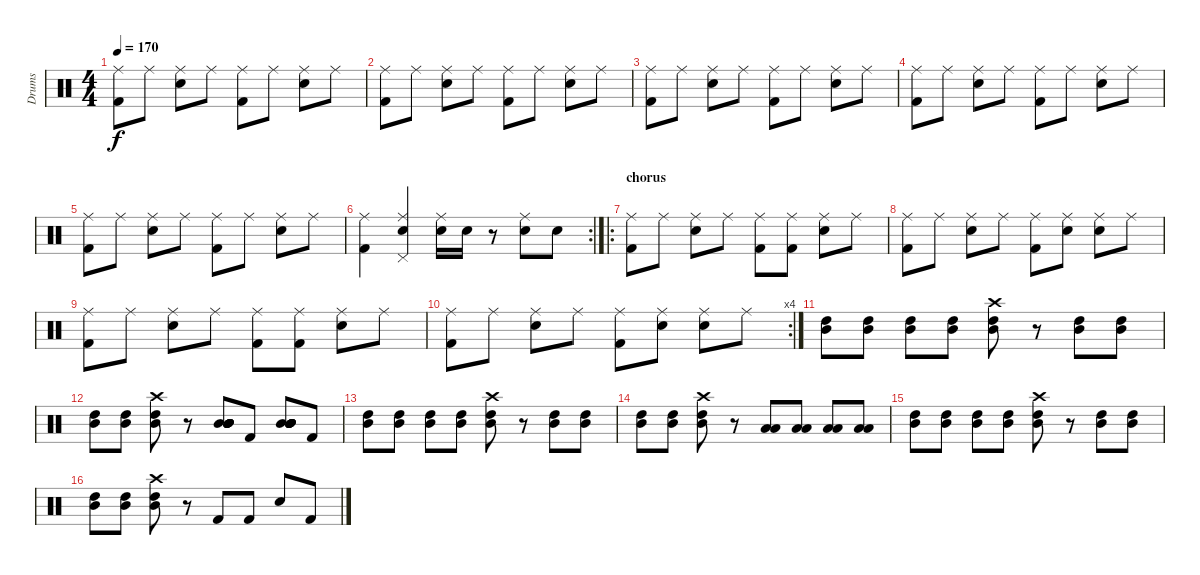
\track ("Drums" "Drums") {instrument percussion}
\staff {score}
\articulation defaults
\ts (4 4)
\tempo 170
\clef neutral
\ks c
("Ride (middle)" "Kick (hit) 2").8{dy f} "Ride (middle)".8 ("Ride (middle)" "Snare (hit) 2").8 "Ride (middle)".8 ("Ride (middle)" "Kick (hit) 2").8 "Ride (middle)".8 ("Ride (middle)" "Snare (hit) 2").8 "Ride (middle)".8 |
("Ride (middle)" "Kick (hit) 2").8 "Ride (middle)".8 ("Ride (middle)" "Snare (hit) 2").8 "Ride (middle)".8 ("Ride (middle)" "Kick (hit) 2").8 "Ride (middle)".8 ("Ride (middle)" "Snare (hit) 2").8 "Ride (middle)".8 |
("Ride (middle)" "Kick (hit) 2").8 "Ride (middle)".8 ("Ride (middle)" "Snare (hit) 2").8 "Ride (middle)".8 ("Ride (middle)" "Kick (hit) 2").8 "Ride (middle)".8 ("Ride (middle)" "Snare (hit) 2").8 "Ride (middle)".8 |
("Ride (middle)" "Kick (hit) 2").8 "Ride (middle)".8 ("Ride (middle)" "Snare (hit) 2").8 "Ride (middle)".8 ("Ride (middle)" "Kick (hit) 2").8 "Ride (middle)".8 ("Ride (middle)" "Snare (hit) 2").8 "Ride (middle)".8 |
("Ride (middle)" "Kick (hit) 2").8 "Ride (middle)".8 ("Ride (middle)" "Snare (hit) 2").8 "Ride (middle)".8 ("Ride (middle)" "Kick (hit) 2").8 "Ride (middle)".8 ("Ride (middle)" "Snare (hit) 2").8 "Ride (middle)".8 |
\rc 2
("Ride (middle)" "Kick (hit) 2").4 ("Ride (middle)" "Snare (hit) 2" "Pedal Hi-Hat (hit)").4 ("Ride (middle)" "Snare (hit) 2").16 "Snare (hit) 2".16 r.8 ("Ride (middle)" "Snare (hit) 2").8 "Snare (hit) 2".8 |
\ro
\section ("" "chorus")
("Ride (middle)" "Kick (hit) 2").8 "Ride (middle)".8 ("Ride (middle)" "Snare (hit) 2").8 "Ride (middle)".8 ("Ride (middle)" "Kick (hit) 2").8 ("Ride (middle)" "Kick (hit) 2").8 ("Ride (middle)" "Snare (hit) 2").8 "Ride (middle)".8 |
("Ride (middle)" "Kick (hit) 2").8 "Ride (middle)".8 ("Ride (middle)" "Snare (hit) 2").8 "Ride (middle)".8 ("Ride (middle)" "Kick (hit) 2").8 ("Ride (middle)" "Snare (hit) 2").8 ("Ride (middle)" "Snare (hit) 2").8 "Ride (middle)".8 |
("Ride (middle)" "Kick (hit) 2").8 "Ride (middle)".8 ("Ride (middle)" "Snare (hit) 2").8 "Ride (middle)".8 ("Ride (middle)" "Kick (hit) 2").8 ("Ride (middle)" "Kick (hit) 2").8 ("Ride (middle)" "Snare (hit) 2").8 "Ride (middle)".8 |
\rc 4
("Ride (middle)" "Kick (hit) 2").8 "Ride (middle)".8 ("Ride (middle)" "Snare (hit) 2").8 "Ride (middle)".8 ("Ride (middle)" "Kick (hit) 2").8 ("Ride (middle)" "Snare (hit) 2").8 ("Ride (middle)" "Snare (hit) 2").8 "Ride (middle)".8 |
("High Tom (hit)" "Mid Tom (hit)").8 ("High Tom (hit)" "Mid Tom (hit)").8 ("High Tom (hit)" "Mid Tom (hit)").8 ("High Tom (hit)" "Mid Tom (hit)").8 ("Crash high (hit)" "High Tom (hit)" "Mid Tom (hit)").8 r.8 ("High Tom (hit)" "Mid Tom (hit)").8 ("High Tom (hit)" "Mid Tom (hit)").8 |
("High Tom (hit)" "Mid Tom (hit)").8 ("High Tom (hit)" "Mid Tom (hit)").8 ("Crash high (hit)" "High Tom (hit)" "Mid Tom (hit)").8 r.8 ("Mid Tom (hit)" "Mid Tom (hit)" "Mid Tom (hit)" "Mid Tom (hit)" "Mid Tom (hit)" "Mid Tom (hit)").8 "Kick (hit) 2".8 ("Mid Tom (hit)" "Mid Tom (hit)" "Mid Tom (hit)" "Mid Tom (hit)" "Mid Tom (hit)" "Mid Tom (hit)").8 "Kick (hit) 2".8 |
("High Tom (hit)" "Mid Tom (hit)").8 ("High Tom (hit)" "Mid Tom (hit)").8 ("High Tom (hit)" "Mid Tom (hit)").8 ("High Tom (hit)" "Mid Tom (hit)").8 ("Crash high (hit)" "High Tom (hit)" "Mid Tom (hit)").8 r.8 ("High Tom (hit)" "Mid Tom (hit)").8 ("High Tom (hit)" "Mid Tom (hit)").8 |
("High Tom (hit)" "Mid Tom (hit)").8 ("High Tom (hit)" "Mid Tom (hit)").8 ("Crash high (hit)" "High Tom (hit)" "Mid Tom (hit)").8 r.8 ("Low Tom (hit)" "Low Tom (hit)").8 ("Low Tom (hit)" "Low Tom (hit)").8 ("Low Tom (hit)" "Low Tom (hit)").8 ("Low Tom (hit)" "Low Tom (hit)").8 |
("High Tom (hit)" "Mid Tom (hit)").8 ("High Tom (hit)" "Mid Tom (hit)").8 ("High Tom (hit)" "Mid Tom (hit)").8 ("High Tom (hit)" "Mid Tom (hit)").8 ("Crash high (hit)" "High Tom (hit)" "Mid Tom (hit)").8 r.8 ("High Tom (hit)" "Mid Tom (hit)").8 ("High Tom (hit)" "Mid Tom (hit)").8 |
("High Tom (hit)" "Mid Tom (hit)").8 ("High Tom (hit)" "Mid Tom (hit)").8 ("Crash high (hit)" "High Tom (hit)" "Mid Tom (hit)").8 r.8 "Kick (hit) 2".8 "Kick (hit) 2".8 "Snare (hit) 2".8 "Kick (hit) 2".8
